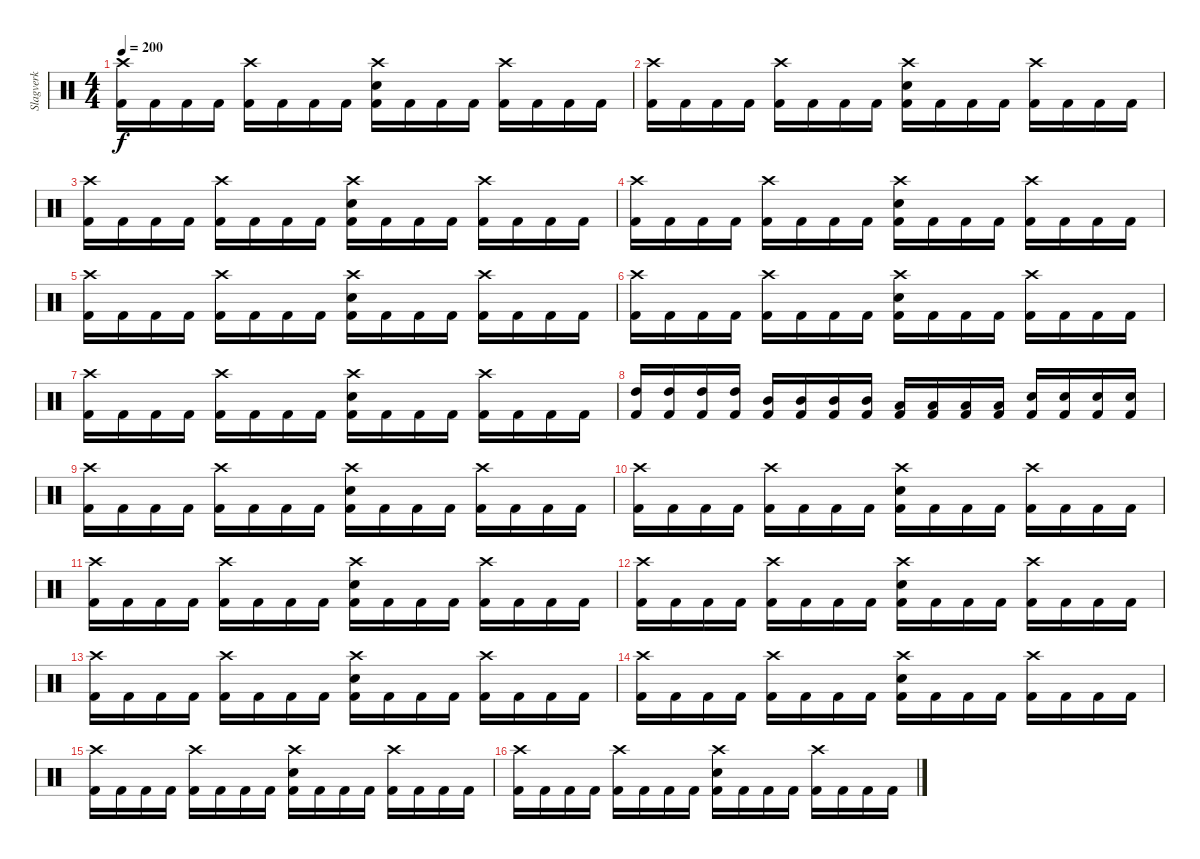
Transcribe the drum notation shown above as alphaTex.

\track ("Slagverk" "Slagverk") {instrument percussion}
\staff {score}
\articulation defaults
\ts (4 4)
\tempo 200
\clef neutral
\ks c
("Crash high (hit)" "Kick (hit) 2").16{dy f} "Kick (hit) 2".16 "Kick (hit) 2".16 "Kick (hit) 2".16 ("Crash high (hit)" "Kick (hit) 2").16 "Kick (hit) 2".16 "Kick (hit) 2".16 "Kick (hit) 2".16 ("Crash high (hit)" "Kick (hit) 2" "Snare (hit) 2").16 "Kick (hit) 2".16 "Kick (hit) 2".16 "Kick (hit) 2".16 ("Crash high (hit)" "Kick (hit) 2").16 "Kick (hit) 2".16 "Kick (hit) 2".16 "Kick (hit) 2".16 |
("Crash high (hit)" "Kick (hit) 2").16 "Kick (hit) 2".16 "Kick (hit) 2".16 "Kick (hit) 2".16 ("Crash high (hit)" "Kick (hit) 2").16 "Kick (hit) 2".16 "Kick (hit) 2".16 "Kick (hit) 2".16 ("Crash high (hit)" "Kick (hit) 2" "Snare (hit) 2").16 "Kick (hit) 2".16 "Kick (hit) 2".16 "Kick (hit) 2".16 ("Crash high (hit)" "Kick (hit) 2").16 "Kick (hit) 2".16 "Kick (hit) 2".16 "Kick (hit) 2".16 |
("Crash high (hit)" "Kick (hit) 2").16 "Kick (hit) 2".16 "Kick (hit) 2".16 "Kick (hit) 2".16 ("Crash high (hit)" "Kick (hit) 2").16 "Kick (hit) 2".16 "Kick (hit) 2".16 "Kick (hit) 2".16 ("Crash high (hit)" "Kick (hit) 2" "Snare (hit) 2").16 "Kick (hit) 2".16 "Kick (hit) 2".16 "Kick (hit) 2".16 ("Crash high (hit)" "Kick (hit) 2").16 "Kick (hit) 2".16 "Kick (hit) 2".16 "Kick (hit) 2".16 |
("Crash high (hit)" "Kick (hit) 2").16 "Kick (hit) 2".16 "Kick (hit) 2".16 "Kick (hit) 2".16 ("Crash high (hit)" "Kick (hit) 2").16 "Kick (hit) 2".16 "Kick (hit) 2".16 "Kick (hit) 2".16 ("Crash high (hit)" "Kick (hit) 2" "Snare (hit) 2").16 "Kick (hit) 2".16 "Kick (hit) 2".16 "Kick (hit) 2".16 ("Crash high (hit)" "Kick (hit) 2").16 "Kick (hit) 2".16 "Kick (hit) 2".16 "Kick (hit) 2".16 |
("Crash high (hit)" "Kick (hit) 2").16 "Kick (hit) 2".16 "Kick (hit) 2".16 "Kick (hit) 2".16 ("Crash high (hit)" "Kick (hit) 2").16 "Kick (hit) 2".16 "Kick (hit) 2".16 "Kick (hit) 2".16 ("Crash high (hit)" "Kick (hit) 2" "Snare (hit) 2").16 "Kick (hit) 2".16 "Kick (hit) 2".16 "Kick (hit) 2".16 ("Crash high (hit)" "Kick (hit) 2").16 "Kick (hit) 2".16 "Kick (hit) 2".16 "Kick (hit) 2".16 |
("Crash high (hit)" "Kick (hit) 2").16 "Kick (hit) 2".16 "Kick (hit) 2".16 "Kick (hit) 2".16 ("Crash high (hit)" "Kick (hit) 2").16 "Kick (hit) 2".16 "Kick (hit) 2".16 "Kick (hit) 2".16 ("Crash high (hit)" "Kick (hit) 2" "Snare (hit) 2").16 "Kick (hit) 2".16 "Kick (hit) 2".16 "Kick (hit) 2".16 ("Crash high (hit)" "Kick (hit) 2").16 "Kick (hit) 2".16 "Kick (hit) 2".16 "Kick (hit) 2".16 |
("Crash high (hit)" "Kick (hit) 2").16 "Kick (hit) 2".16 "Kick (hit) 2".16 "Kick (hit) 2".16 ("Crash high (hit)" "Kick (hit) 2").16 "Kick (hit) 2".16 "Kick (hit) 2".16 "Kick (hit) 2".16 ("Crash high (hit)" "Kick (hit) 2" "Snare (hit) 2").16 "Kick (hit) 2".16 "Kick (hit) 2".16 "Kick (hit) 2".16 ("Crash high (hit)" "Kick (hit) 2").16 "Kick (hit) 2".16 "Kick (hit) 2".16 "Kick (hit) 2".16 |
("Kick (hit) 2" "High Tom (hit)").16 ("Kick (hit) 2" "High Tom (hit)").16 ("Kick (hit) 2" "High Tom (hit)").16 ("Kick (hit) 2" "High Tom (hit)").16 ("Kick (hit) 2" "Mid Tom (hit)").16 ("Kick (hit) 2" "Mid Tom (hit)").16 ("Kick (hit) 2" "Mid Tom (hit)").16 ("Kick (hit) 2" "Mid Tom (hit)").16 ("Kick (hit) 2" "Low Tom (hit)").16 ("Kick (hit) 2" "Low Tom (hit)").16 ("Kick (hit) 2" "Low Tom (hit)").16 ("Kick (hit) 2" "Low Tom (hit)").16 ("Kick (hit) 2" "Snare (hit) 2").16 ("Kick (hit) 2" "Snare (hit) 2").16 ("Kick (hit) 2" "Snare (hit) 2").16 ("Kick (hit) 2" "Snare (hit) 2").16 |
("Crash high (hit)" "Kick (hit) 2").16 "Kick (hit) 2".16 "Kick (hit) 2".16 "Kick (hit) 2".16 ("Crash high (hit)" "Kick (hit) 2").16 "Kick (hit) 2".16 "Kick (hit) 2".16 "Kick (hit) 2".16 ("Crash high (hit)" "Kick (hit) 2" "Snare (hit) 2").16 "Kick (hit) 2".16 "Kick (hit) 2".16 "Kick (hit) 2".16 ("Crash high (hit)" "Kick (hit) 2").16 "Kick (hit) 2".16 "Kick (hit) 2".16 "Kick (hit) 2".16 |
("Crash high (hit)" "Kick (hit) 2").16 "Kick (hit) 2".16 "Kick (hit) 2".16 "Kick (hit) 2".16 ("Crash high (hit)" "Kick (hit) 2").16 "Kick (hit) 2".16 "Kick (hit) 2".16 "Kick (hit) 2".16 ("Crash high (hit)" "Kick (hit) 2" "Snare (hit) 2").16 "Kick (hit) 2".16 "Kick (hit) 2".16 "Kick (hit) 2".16 ("Crash high (hit)" "Kick (hit) 2").16 "Kick (hit) 2".16 "Kick (hit) 2".16 "Kick (hit) 2".16 |
("Crash high (hit)" "Kick (hit) 2").16 "Kick (hit) 2".16 "Kick (hit) 2".16 "Kick (hit) 2".16 ("Crash high (hit)" "Kick (hit) 2").16 "Kick (hit) 2".16 "Kick (hit) 2".16 "Kick (hit) 2".16 ("Crash high (hit)" "Kick (hit) 2" "Snare (hit) 2").16 "Kick (hit) 2".16 "Kick (hit) 2".16 "Kick (hit) 2".16 ("Crash high (hit)" "Kick (hit) 2").16 "Kick (hit) 2".16 "Kick (hit) 2".16 "Kick (hit) 2".16 |
("Crash high (hit)" "Kick (hit) 2").16 "Kick (hit) 2".16 "Kick (hit) 2".16 "Kick (hit) 2".16 ("Crash high (hit)" "Kick (hit) 2").16 "Kick (hit) 2".16 "Kick (hit) 2".16 "Kick (hit) 2".16 ("Crash high (hit)" "Kick (hit) 2" "Snare (hit) 2").16 "Kick (hit) 2".16 "Kick (hit) 2".16 "Kick (hit) 2".16 ("Crash high (hit)" "Kick (hit) 2").16 "Kick (hit) 2".16 "Kick (hit) 2".16 "Kick (hit) 2".16 |
("Crash high (hit)" "Kick (hit) 2").16 "Kick (hit) 2".16 "Kick (hit) 2".16 "Kick (hit) 2".16 ("Crash high (hit)" "Kick (hit) 2").16 "Kick (hit) 2".16 "Kick (hit) 2".16 "Kick (hit) 2".16 ("Crash high (hit)" "Kick (hit) 2" "Snare (hit) 2").16 "Kick (hit) 2".16 "Kick (hit) 2".16 "Kick (hit) 2".16 ("Crash high (hit)" "Kick (hit) 2").16 "Kick (hit) 2".16 "Kick (hit) 2".16 "Kick (hit) 2".16 |
("Crash high (hit)" "Kick (hit) 2").16 "Kick (hit) 2".16 "Kick (hit) 2".16 "Kick (hit) 2".16 ("Crash high (hit)" "Kick (hit) 2").16 "Kick (hit) 2".16 "Kick (hit) 2".16 "Kick (hit) 2".16 ("Crash high (hit)" "Kick (hit) 2" "Snare (hit) 2").16 "Kick (hit) 2".16 "Kick (hit) 2".16 "Kick (hit) 2".16 ("Crash high (hit)" "Kick (hit) 2").16 "Kick (hit) 2".16 "Kick (hit) 2".16 "Kick (hit) 2".16 |
("Crash high (hit)" "Kick (hit) 2").16 "Kick (hit) 2".16 "Kick (hit) 2".16 "Kick (hit) 2".16 ("Crash high (hit)" "Kick (hit) 2").16 "Kick (hit) 2".16 "Kick (hit) 2".16 "Kick (hit) 2".16 ("Crash high (hit)" "Kick (hit) 2" "Snare (hit) 2").16 "Kick (hit) 2".16 "Kick (hit) 2".16 "Kick (hit) 2".16 ("Crash high (hit)" "Kick (hit) 2").16 "Kick (hit) 2".16 "Kick (hit) 2".16 "Kick (hit) 2".16 |
("Crash high (hit)" "Kick (hit) 2").16 "Kick (hit) 2".16 "Kick (hit) 2".16 "Kick (hit) 2".16 ("Crash high (hit)" "Kick (hit) 2").16 "Kick (hit) 2".16 "Kick (hit) 2".16 "Kick (hit) 2".16 ("Crash high (hit)" "Kick (hit) 2" "Snare (hit) 2").16 "Kick (hit) 2".16 "Kick (hit) 2".16 "Kick (hit) 2".16 ("Crash high (hit)" "Kick (hit) 2").16 "Kick (hit) 2".16 "Kick (hit) 2".16 "Kick (hit) 2".16
